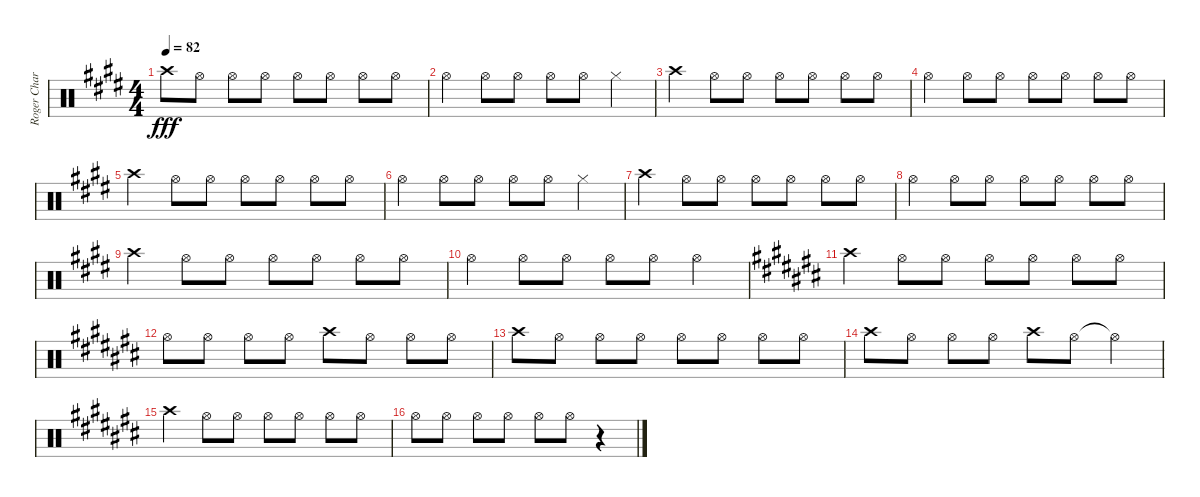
\track ("Roger Charlet" "Roger Char") {instrument percussion}
\staff {score}
\articulation defaults
\ts (4 4)
\tempo 82
\clef neutral
\ks e "Crash high (hit)".8{dy fff} "Hi-Hat (open)".8 "Hi-Hat (open)".8 "Hi-Hat (open)".8 "Hi-Hat (open)".8 "Hi-Hat (open)".8 "Hi-Hat (open)".8 "Hi-Hat (open)".8
|
"Hi-Hat (open)".4 "Hi-Hat (open)".8 "Hi-Hat (open)".8 "Hi-Hat (open)".8 "Hi-Hat (open)".8 "Hi-Hat (closed)".4 |
"Crash high (hit)".4 "Hi-Hat (open)".8 "Hi-Hat (open)".8 "Hi-Hat (open)".8 "Hi-Hat (open)".8 "Hi-Hat (open)".8 "Hi-Hat (open)".8 |
"Hi-Hat (open)".4 "Hi-Hat (open)".8 "Hi-Hat (open)".8 "Hi-Hat (open)".8 "Hi-Hat (open)".8 "Hi-Hat (open)".8 "Hi-Hat (open)".8 |
"Crash high (hit)".4 "Hi-Hat (open)".8 "Hi-Hat (open)".8 "Hi-Hat (open)".8 "Hi-Hat (open)".8 "Hi-Hat (open)".8 "Hi-Hat (open)".8 |
"Hi-Hat (open)".4 "Hi-Hat (open)".8 "Hi-Hat (open)".8 "Hi-Hat (open)".8 "Hi-Hat (open)".8 "Hi-Hat (closed)".4 |
"Crash high (hit)".4 "Hi-Hat (open)".8 "Hi-Hat (open)".8 "Hi-Hat (open)".8 "Hi-Hat (open)".8 "Hi-Hat (open)".8 "Hi-Hat (open)".8 |
"Hi-Hat (open)".4 "Hi-Hat (open)".8 "Hi-Hat (open)".8 "Hi-Hat (open)".8 "Hi-Hat (open)".8 "Hi-Hat (open)".8 "Hi-Hat (open)".8 |
"Crash high (hit)".4 "Hi-Hat (open)".8 "Hi-Hat (open)".8 "Hi-Hat (open)".8 "Hi-Hat (open)".8 "Hi-Hat (open)".8 "Hi-Hat (open)".8 |
"Hi-Hat (open)".4 "Hi-Hat (open)".8 "Hi-Hat (open)".8 "Hi-Hat (open)".8 "Hi-Hat (open)".8 "Hi-Hat (open)".4 |
\ks c# "Crash high (hit)".4 "Hi-Hat (open)".8 "Hi-Hat (open)".8 "Hi-Hat (open)".8 "Hi-Hat (open)".8 "Hi-Hat (open)".8 "Hi-Hat (open)".8
|
"Hi-Hat (open)".8 "Hi-Hat (open)".8 "Hi-Hat (open)".8 "Hi-Hat (open)".8 "Crash high (hit)".8 "Hi-Hat (open)".8 "Hi-Hat (open)".8 "Hi-Hat (open)".8 |
"Crash high (hit)".8 "Hi-Hat (open)".8 "Hi-Hat (open)".8 "Hi-Hat (open)".8 "Hi-Hat (open)".8 "Hi-Hat (open)".8 "Hi-Hat (open)".8 "Hi-Hat (open)".8 |
"Crash high (hit)".8 "Hi-Hat (open)".8 "Hi-Hat (open)".8 "Hi-Hat (open)".8 "Crash high (hit)".8 "Hi-Hat (open)".8 "Hi-Hat (open)"{t}.4 |
"Crash high (hit)".4 "Hi-Hat (open)".8 "Hi-Hat (open)".8 "Hi-Hat (open)".8 "Hi-Hat (open)".8 "Hi-Hat (open)".8 "Hi-Hat (open)".8 |
"Hi-Hat (open)".8 "Hi-Hat (open)".8 "Hi-Hat (open)".8 "Hi-Hat (open)".8 "Hi-Hat (open)".8 "Hi-Hat (open)".8 r.4
